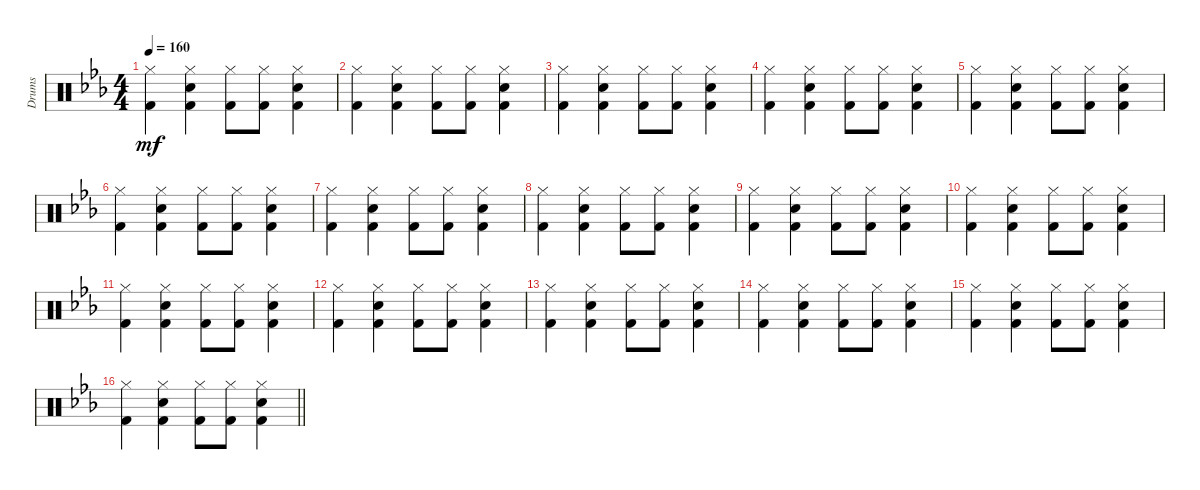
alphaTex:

\track ("Drums" "Drums") {instrument percussion}
\staff {score}
\articulation defaults
\ts (4 4)
\tempo 160
\clef neutral
\ks eb
("Hi-Hat (closed)" "Kick (hit) 2").4{dy mf} ("Hi-Hat (closed)" "Electric Snare (hit)" "Kick (hit) 2").4 ("Hi-Hat (closed)" "Kick (hit) 2").8 ("Hi-Hat (closed)" "Kick (hit) 2").8 ("Hi-Hat (closed)" "Electric Snare (hit)" "Kick (hit) 2").4 |
("Hi-Hat (closed)" "Kick (hit) 2").4 ("Hi-Hat (closed)" "Electric Snare (hit)" "Kick (hit) 2").4 ("Hi-Hat (closed)" "Kick (hit) 2").8 ("Hi-Hat (closed)" "Kick (hit) 2").8 ("Hi-Hat (closed)" "Electric Snare (hit)" "Kick (hit) 2").4 |
("Hi-Hat (closed)" "Kick (hit) 2").4 ("Hi-Hat (closed)" "Electric Snare (hit)" "Kick (hit) 2").4 ("Hi-Hat (closed)" "Kick (hit) 2").8 ("Hi-Hat (closed)" "Kick (hit) 2").8 ("Hi-Hat (closed)" "Electric Snare (hit)" "Kick (hit) 2").4 |
("Hi-Hat (closed)" "Kick (hit) 2").4 ("Hi-Hat (closed)" "Electric Snare (hit)" "Kick (hit) 2").4 ("Hi-Hat (closed)" "Kick (hit) 2").8 ("Hi-Hat (closed)" "Kick (hit) 2").8 ("Hi-Hat (closed)" "Electric Snare (hit)" "Kick (hit) 2").4 |
("Hi-Hat (closed)" "Kick (hit) 2").4 ("Hi-Hat (closed)" "Electric Snare (hit)" "Kick (hit) 2").4 ("Hi-Hat (closed)" "Kick (hit) 2").8 ("Hi-Hat (closed)" "Kick (hit) 2").8 ("Hi-Hat (closed)" "Electric Snare (hit)" "Kick (hit) 2").4 |
("Hi-Hat (closed)" "Kick (hit) 2").4 ("Hi-Hat (closed)" "Electric Snare (hit)" "Kick (hit) 2").4 ("Hi-Hat (closed)" "Kick (hit) 2").8 ("Hi-Hat (closed)" "Kick (hit) 2").8 ("Hi-Hat (closed)" "Electric Snare (hit)" "Kick (hit) 2").4 |
("Hi-Hat (closed)" "Kick (hit) 2").4 ("Hi-Hat (closed)" "Electric Snare (hit)" "Kick (hit) 2").4 ("Hi-Hat (closed)" "Kick (hit) 2").8 ("Hi-Hat (closed)" "Kick (hit) 2").8 ("Hi-Hat (closed)" "Electric Snare (hit)" "Kick (hit) 2").4 |
("Hi-Hat (closed)" "Kick (hit) 2").4 ("Hi-Hat (closed)" "Electric Snare (hit)" "Kick (hit) 2").4 ("Hi-Hat (closed)" "Kick (hit) 2").8 ("Hi-Hat (closed)" "Kick (hit) 2").8 ("Hi-Hat (closed)" "Electric Snare (hit)" "Kick (hit) 2").4 |
("Hi-Hat (closed)" "Kick (hit) 2").4 ("Hi-Hat (closed)" "Electric Snare (hit)" "Kick (hit) 2").4 ("Hi-Hat (closed)" "Kick (hit) 2").8 ("Hi-Hat (closed)" "Kick (hit) 2").8 ("Hi-Hat (closed)" "Electric Snare (hit)" "Kick (hit) 2").4 |
("Hi-Hat (closed)" "Kick (hit) 2").4 ("Hi-Hat (closed)" "Electric Snare (hit)" "Kick (hit) 2").4 ("Hi-Hat (closed)" "Kick (hit) 2").8 ("Hi-Hat (closed)" "Kick (hit) 2").8 ("Hi-Hat (closed)" "Electric Snare (hit)" "Kick (hit) 2").4 |
("Hi-Hat (closed)" "Kick (hit) 2").4 ("Hi-Hat (closed)" "Electric Snare (hit)" "Kick (hit) 2").4 ("Hi-Hat (closed)" "Kick (hit) 2").8 ("Hi-Hat (closed)" "Kick (hit) 2").8 ("Hi-Hat (closed)" "Electric Snare (hit)" "Kick (hit) 2").4 |
("Hi-Hat (closed)" "Kick (hit) 2").4 ("Hi-Hat (closed)" "Electric Snare (hit)" "Kick (hit) 2").4 ("Hi-Hat (closed)" "Kick (hit) 2").8 ("Hi-Hat (closed)" "Kick (hit) 2").8 ("Hi-Hat (closed)" "Electric Snare (hit)" "Kick (hit) 2").4 |
("Hi-Hat (closed)" "Kick (hit) 2").4 ("Hi-Hat (closed)" "Electric Snare (hit)" "Kick (hit) 2").4 ("Hi-Hat (closed)" "Kick (hit) 2").8 ("Hi-Hat (closed)" "Kick (hit) 2").8 ("Hi-Hat (closed)" "Electric Snare (hit)" "Kick (hit) 2").4 |
("Hi-Hat (closed)" "Kick (hit) 2").4 ("Hi-Hat (closed)" "Electric Snare (hit)" "Kick (hit) 2").4 ("Hi-Hat (closed)" "Kick (hit) 2").8 ("Hi-Hat (closed)" "Kick (hit) 2").8 ("Hi-Hat (closed)" "Electric Snare (hit)" "Kick (hit) 2").4 |
("Hi-Hat (closed)" "Kick (hit) 2").4 ("Hi-Hat (closed)" "Electric Snare (hit)" "Kick (hit) 2").4 ("Hi-Hat (closed)" "Kick (hit) 2").8 ("Hi-Hat (closed)" "Kick (hit) 2").8 ("Hi-Hat (closed)" "Electric Snare (hit)" "Kick (hit) 2").4 |
\barLineRight lightlight
("Hi-Hat (closed)" "Kick (hit) 2").4 ("Hi-Hat (closed)" "Electric Snare (hit)" "Kick (hit) 2").4 ("Hi-Hat (closed)" "Kick (hit) 2").8 ("Hi-Hat (closed)" "Kick (hit) 2").8 ("Hi-Hat (closed)" "Electric Snare (hit)" "Kick (hit) 2").4
